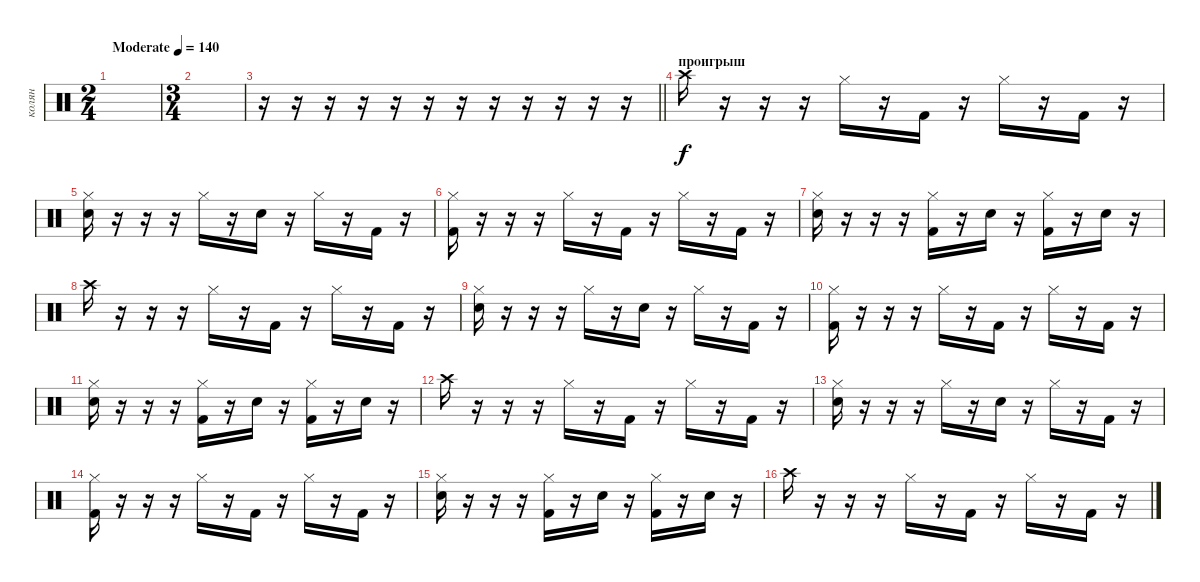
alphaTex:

\track ("колян" "колян") {instrument percussion}
\staff {score}
\articulation defaults
\ts (2 4)
\tempo (140 "Moderate")
\clef neutral
\ks c
|
\ts (3 4)
|
\barLineRight lightlight
r.16 r.16 r.16 r.16 r.16 r.16 r.16 r.16 r.16 r.16 r.16 r.16 |
\section ("" "проигрыш")
"Crash high (hit)".16 r.16 r.16 r.16 "Hi-Hat (closed)".16 r.16 "Kick (hit) 2".16 r.16 "Hi-Hat (closed)".16 r.16 "Kick (hit) 2".16 r.16 |
("Snare (hit) 2" "Hi-Hat (closed)").16 r.16 r.16 r.16 "Hi-Hat (closed)".16 r.16 "Snare (hit) 2".16 r.16 "Hi-Hat (closed)".16 r.16 "Kick (hit) 2".16 r.16 |
("Kick (hit) 2" "Hi-Hat (closed)").16 r.16 r.16 r.16 "Hi-Hat (closed)".16 r.16 "Kick (hit) 2".16 r.16 "Hi-Hat (closed)".16 r.16 "Kick (hit) 2".16 r.16 |
("Snare (hit) 2" "Hi-Hat (closed)").16 r.16 r.16 r.16 ("Kick (hit) 2" "Hi-Hat (closed)").16 r.16 "Snare (hit) 2".16 r.16 ("Kick (hit) 2" "Hi-Hat (closed)").16 r.16 "Snare (hit) 2".16 r.16 |
"Crash high (hit)".16 r.16 r.16 r.16 "Hi-Hat (closed)".16 r.16 "Kick (hit) 2".16 r.16 "Hi-Hat (closed)".16 r.16 "Kick (hit) 2".16 r.16 |
("Snare (hit) 2" "Hi-Hat (closed)").16 r.16 r.16 r.16 "Hi-Hat (closed)".16 r.16 "Snare (hit) 2".16 r.16 "Hi-Hat (closed)".16 r.16 "Kick (hit) 2".16 r.16 |
("Kick (hit) 2" "Hi-Hat (closed)").16 r.16 r.16 r.16 "Hi-Hat (closed)".16 r.16 "Kick (hit) 2".16 r.16 "Hi-Hat (closed)".16 r.16 "Kick (hit) 2".16 r.16 |
("Snare (hit) 2" "Hi-Hat (closed)").16 r.16 r.16 r.16 ("Kick (hit) 2" "Hi-Hat (closed)").16 r.16 "Snare (hit) 2".16 r.16 ("Kick (hit) 2" "Hi-Hat (closed)").16 r.16 "Snare (hit) 2".16 r.16 |
"Crash high (hit)".16 r.16 r.16 r.16 "Hi-Hat (closed)".16 r.16 "Kick (hit) 2".16 r.16 "Hi-Hat (closed)".16 r.16 "Kick (hit) 2".16 r.16 |
("Snare (hit) 2" "Hi-Hat (closed)").16 r.16 r.16 r.16 "Hi-Hat (closed)".16 r.16 "Snare (hit) 2".16 r.16 "Hi-Hat (closed)".16 r.16 "Kick (hit) 2".16 r.16 |
("Kick (hit) 2" "Hi-Hat (closed)").16 r.16 r.16 r.16 "Hi-Hat (closed)".16 r.16 "Kick (hit) 2".16 r.16 "Hi-Hat (closed)".16 r.16 "Kick (hit) 2".16 r.16 |
("Snare (hit) 2" "Hi-Hat (closed)").16 r.16 r.16 r.16 ("Kick (hit) 2" "Hi-Hat (closed)").16 r.16 "Snare (hit) 2".16 r.16 ("Kick (hit) 2" "Hi-Hat (closed)").16 r.16 "Snare (hit) 2".16 r.16 |
"Crash high (hit)".16 r.16 r.16 r.16 "Hi-Hat (closed)".16 r.16 "Kick (hit) 2".16 r.16 "Hi-Hat (closed)".16 r.16 "Kick (hit) 2".16 r.16
